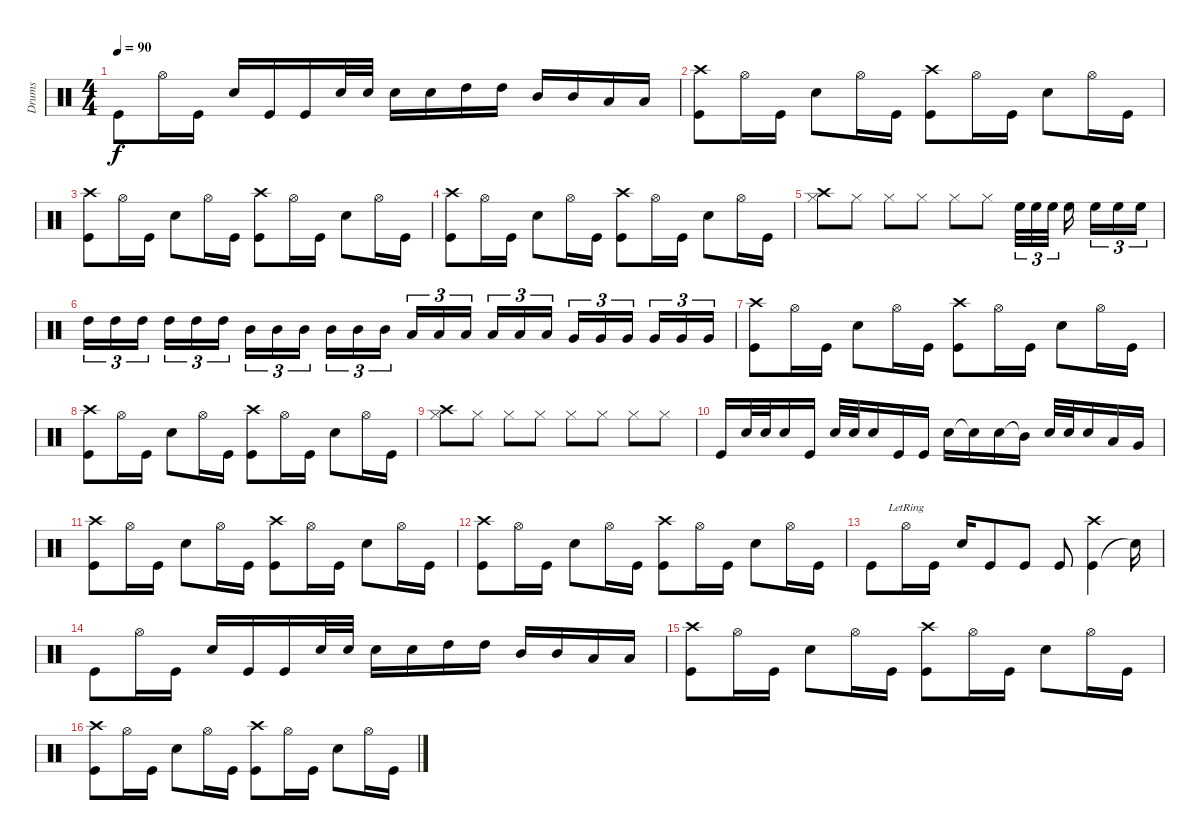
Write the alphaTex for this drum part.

\track ("Drums" "Drums") {instrument percussion}
\staff {score}
\articulation defaults
\ts (4 4)
\tempo 90
\clef neutral
\ks c "Kick (hit)".8{dy f} "Hi-Hat (open)".16 "Kick (hit)".16 "Snare (hit) 2".16 "Kick (hit)".16 "Kick (hit)".16 "Snare (hit) 2".32 "Snare (hit) 2".32 "Snare (hit) 2".16 "Snare (hit) 2".16 "High Tom (hit)".16 "High Tom (hit)".16 "Mid Tom (hit)".16 "Mid Tom (hit)".16 "Low Tom (hit)".16 "Low Tom (hit)".16
|
("Kick (hit)" "Crash high (hit)").8 "Hi-Hat (open)".16 "Kick (hit)".16 "Snare (hit) 2".8 "Hi-Hat (open)".16 "Kick (hit)".16 ("Kick (hit)" "Crash high (hit)").8 "Hi-Hat (open)".16 "Kick (hit)".16 "Snare (hit) 2".8 "Hi-Hat (open)".16 "Kick (hit)".16 |
("Kick (hit)" "Crash high (hit)").8 "Hi-Hat (open)".16 "Kick (hit)".16 "Snare (hit) 2".8 "Hi-Hat (open)".16 "Kick (hit)".16 ("Kick (hit)" "Crash high (hit)").8 "Hi-Hat (open)".16 "Kick (hit)".16 "Snare (hit) 2".8 "Hi-Hat (open)".16 "Kick (hit)".16 |
("Kick (hit)" "Crash high (hit)").8 "Hi-Hat (open)".16 "Kick (hit)".16 "Snare (hit) 2".8 "Hi-Hat (open)".16 "Kick (hit)".16 ("Kick (hit)" "Crash high (hit)").8 "Hi-Hat (open)".16 "Kick (hit)".16 "Snare (hit) 2".8 "Hi-Hat (open)".16 "Kick (hit)".16 |
("Hi-Hat (closed)" "Crash high (hit)").8 "Hi-Hat (closed)".8 "Hi-Hat (closed)".8 "Hi-Hat (closed)".8 "Hi-Hat (closed)".8 "Hi-Hat (closed)".8 "High Floor Tom (hit)".32{tu (3 2)} "High Floor Tom (hit)".32{tu (3 2)} "High Floor Tom (hit)".32{tu (3 2)} "High Floor Tom (hit)".16 "High Floor Tom (hit)".16{tu (3 2)} "High Floor Tom (hit)".16{tu (3 2)} "High Floor Tom (hit)".16{tu (3 2)} |
"High Tom (hit)".16{tu (3 2)} "High Tom (hit)".16{tu (3 2)} "High Tom (hit)".16{tu (3 2)} "High Tom (hit)".16{tu (3 2)} "High Tom (hit)".16{tu (3 2)} "High Tom (hit)".16{tu (3 2)} "Mid Tom (hit)".16{tu (3 2)} "Mid Tom (hit)".16{tu (3 2)} "Mid Tom (hit)".16{tu (3 2)} "Mid Tom (hit)".16{tu (3 2)} "Mid Tom (hit)".16{tu (3 2)} "Mid Tom (hit)".16{tu (3 2)} "Low Tom (hit)".16{tu (3 2)} "Low Tom (hit)".16{tu (3 2)} "Low Tom (hit)".16{tu (3 2)} "Low Tom (hit)".16{tu (3 2)} "Low Tom (hit)".16{tu (3 2)} "Low Tom (hit)".16{tu (3 2)} "Very Low Tom (hit)".16{tu (3 2)} "Very Low Tom (hit)".16{tu (3 2)} "Very Low Tom (hit)".16{tu (3 2)} "Very Low Tom (hit)".16{tu (3 2)} "Very Low Tom (hit)".16{tu (3 2)} "Very Low Tom (hit)".16{tu (3 2)} |
("Kick (hit)" "Crash high (hit)").8 "Hi-Hat (open)".16 "Kick (hit)".16 "Snare (hit) 2".8 "Hi-Hat (open)".16 "Kick (hit)".16 ("Kick (hit)" "Crash high (hit)").8 "Hi-Hat (open)".16 "Kick (hit)".16 "Snare (hit) 2".8 "Hi-Hat (open)".16 "Kick (hit)".16 |
("Kick (hit)" "Crash high (hit)").8 "Hi-Hat (open)".16 "Kick (hit)".16 "Snare (hit) 2".8 "Hi-Hat (open)".16 "Kick (hit)".16 ("Kick (hit)" "Crash high (hit)").8 "Hi-Hat (open)".16 "Kick (hit)".16 "Snare (hit) 2".8 "Hi-Hat (open)".16 "Kick (hit)".16 |
("Hi-Hat (closed)" "Crash high (hit)").8 "Hi-Hat (closed)".8 "Hi-Hat (closed)".8 "Hi-Hat (closed)".8 "Hi-Hat (closed)".8 "Hi-Hat (closed)".8 "Hi-Hat (closed)".8 "Hi-Hat (closed)".8 |
"Kick (hit)".16 "Snare (hit) 2".32 "Snare (hit) 2".32 "Snare (hit) 2".16 "Kick (hit)".16 "Snare (hit) 2".32 "Snare (hit) 2".32 "Snare (hit) 2".16 "Kick (hit)".16 "Kick (hit)".16 "Snare (hit) 2".16 "Snare (hit) 2"{t}.16 "Snare (hit) 2".16 "Mid Tom (hit)"{t}.16 "Snare (hit) 2".32 "Snare (hit) 2".32 "Snare (hit) 2".16 "Low Tom (hit)".16 "Very Low Tom (hit)".16 |
("Kick (hit)" "Crash high (hit)").8 "Hi-Hat (open)".16 "Kick (hit)".16 "Snare (hit) 2".8 "Hi-Hat (open)".16 "Kick (hit)".16 ("Kick (hit)" "Crash high (hit)").8 "Hi-Hat (open)".16 "Kick (hit)".16 "Snare (hit) 2".8 "Hi-Hat (open)".16 "Kick (hit)".16 |
("Kick (hit)" "Crash high (hit)").8 "Hi-Hat (open)".16 "Kick (hit)".16 "Snare (hit) 2".8 "Hi-Hat (open)".16 "Kick (hit)".16 ("Kick (hit)" "Crash high (hit)").8 "Hi-Hat (open)".16 "Kick (hit)".16 "Snare (hit) 2".8 "Hi-Hat (open)".16 "Kick (hit)".16 |
"Kick (hit)".8 "Hi-Hat (open)"{lr}.16 "Kick (hit)".16 "Snare (hit) 2".16 "Kick (hit)".8 "Kick (hit)".8 "Kick (hit)".8 ("Kick (hit)" "Crash high (hit)").4 "Snare (hit)"{t}.16 |
"Kick (hit)".8 "Hi-Hat (open)".16 "Kick (hit)".16 "Snare (hit) 2".16 "Kick (hit)".16 "Kick (hit)".16 "Snare (hit) 2".32 "Snare (hit) 2".32 "Snare (hit) 2".16 "Snare (hit) 2".16 "High Tom (hit)".16 "High Tom (hit)".16 "Mid Tom (hit)".16 "Mid Tom (hit)".16 "Low Tom (hit)".16 "Low Tom (hit)".16 |
("Kick (hit)" "Crash high (hit)").8 "Hi-Hat (open)".16 "Kick (hit)".16 "Snare (hit) 2".8 "Hi-Hat (open)".16 "Kick (hit)".16 ("Kick (hit)" "Crash high (hit)").8 "Hi-Hat (open)".16 "Kick (hit)".16 "Snare (hit) 2".8 "Hi-Hat (open)".16 "Kick (hit)".16 |
("Kick (hit)" "Crash high (hit)").8 "Hi-Hat (open)".16 "Kick (hit)".16 "Snare (hit) 2".8 "Hi-Hat (open)".16 "Kick (hit)".16 ("Kick (hit)" "Crash high (hit)").8 "Hi-Hat (open)".16 "Kick (hit)".16 "Snare (hit) 2".8 "Hi-Hat (open)".16 "Kick (hit)".16
